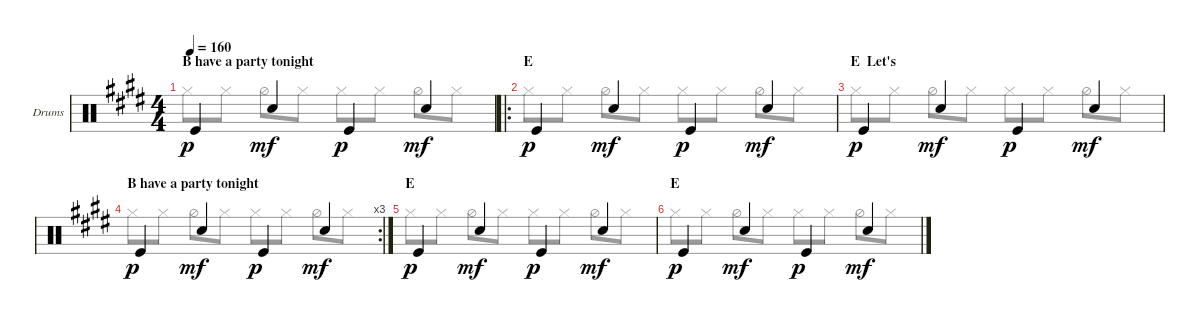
\defaultSystemsLayout 4
\bracketExtendMode groupsimilarinstruments
\firstSystemTrackNameOrientation horizontal
\otherSystemsTrackNameOrientation horizontal
\track ("Drumkit" "Drums") {instrument percussion}
\staff {score}
\articulation defaults
\voice
\ts (4 4)
\section ("" "B have a party tonight")
\tempo 160
\clef neutral
\ks e "Kick (hit)".4{dy p} "Snare (hit) 2".4{dy mf} "Kick (hit)".4{dy p} "Snare (hit) 2".4{dy mf}
|
\ro
\section ("" "E")
"Kick (hit)".4{dy p} "Snare (hit) 2".4{dy mf} "Kick (hit)".4{dy p} "Snare (hit) 2".4{dy mf} |
\section ("" "E  Let's")
"Kick (hit)".4{dy p} "Snare (hit) 2".4{dy mf} "Kick (hit)".4{dy p} "Snare (hit) 2".4{dy mf} |
\rc 3
\section ("" "B have a party tonight")
"Kick (hit)".4{dy p} "Snare (hit) 2".4{dy mf} "Kick (hit)".4{dy p} "Snare (hit) 2".4{dy mf} |
\section ("" "E")
"Kick (hit)".4{dy p} "Snare (hit) 2".4{dy mf} "Kick (hit)".4{dy p} "Snare (hit) 2".4{dy mf} |
\section ("" "E")
"Kick (hit)".4{dy p} "Snare (hit) 2".4{dy mf} "Kick (hit)".4{dy p} "Snare (hit) 2".4{dy mf}
\voice
\clef neutral
\ottava regular
\simile none
\ks e "Hi-Hat (closed)".8{dy p} "Hi-Hat (closed)".8 "Hi-Hat (half)".8 "Hi-Hat (closed)".8 "Hi-Hat (closed)".8 "Hi-Hat (closed)".8 "Hi-Hat (half)".8 "Hi-Hat (closed)".8
|
"Hi-Hat (closed)".8 "Hi-Hat (closed)".8 "Hi-Hat (half)".8 "Hi-Hat (closed)".8 "Hi-Hat (closed)".8 "Hi-Hat (closed)".8 "Hi-Hat (half)".8 "Hi-Hat (closed)".8 |
"Hi-Hat (closed)".8 "Hi-Hat (closed)".8 "Hi-Hat (half)".8 "Hi-Hat (closed)".8 "Hi-Hat (closed)".8 "Hi-Hat (closed)".8 "Hi-Hat (half)".8 "Hi-Hat (closed)".8 |
"Hi-Hat (closed)".8 "Hi-Hat (closed)".8 "Hi-Hat (half)".8 "Hi-Hat (closed)".8 "Hi-Hat (closed)".8 "Hi-Hat (closed)".8 "Hi-Hat (half)".8 "Hi-Hat (closed)".8 |
"Hi-Hat (closed)".8 "Hi-Hat (closed)".8 "Hi-Hat (half)".8 "Hi-Hat (closed)".8 "Hi-Hat (closed)".8 "Hi-Hat (closed)".8 "Hi-Hat (half)".8 "Hi-Hat (closed)".8 |
"Hi-Hat (closed)".8 "Hi-Hat (closed)".8 "Hi-Hat (half)".8 "Hi-Hat (closed)".8 "Hi-Hat (closed)".8 "Hi-Hat (closed)".8 "Hi-Hat (half)".8 "Hi-Hat (closed)".8
